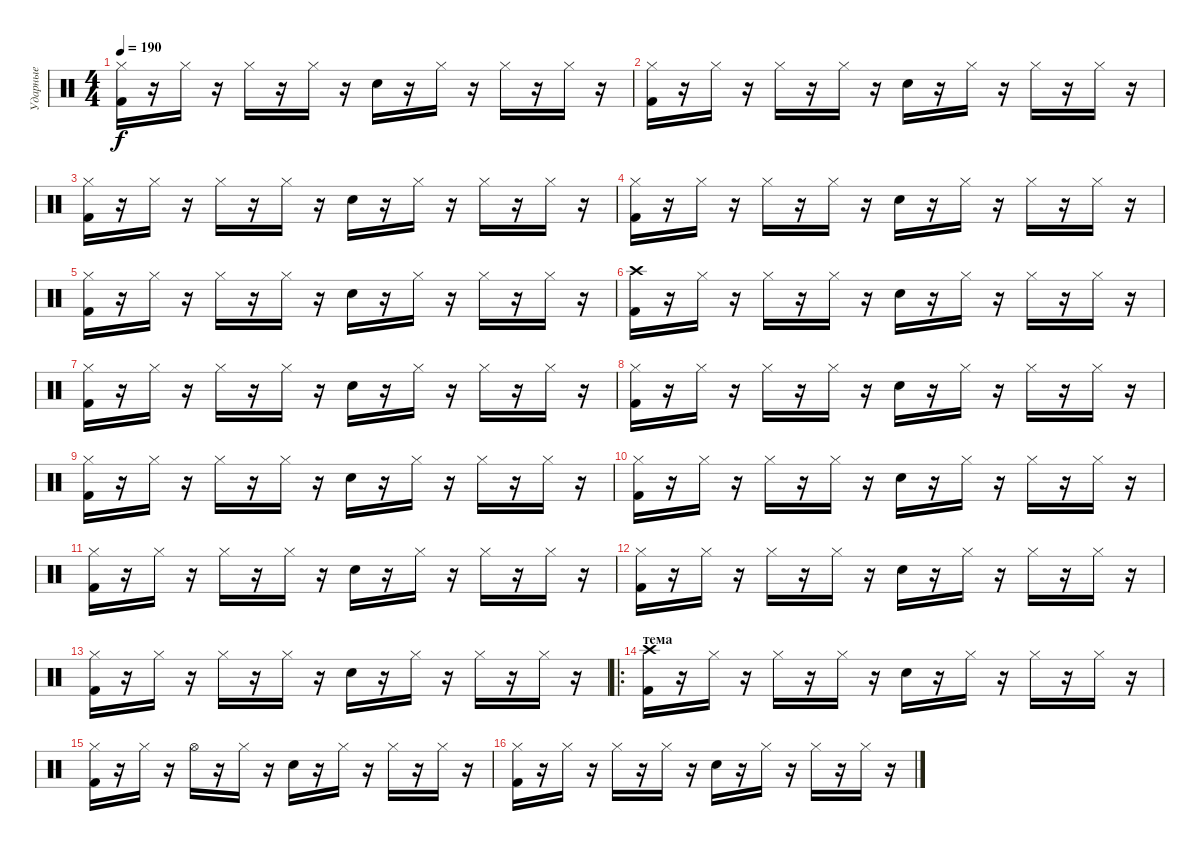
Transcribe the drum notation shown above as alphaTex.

\track ("Ударные" "Ударные") {instrument percussion}
\staff {score}
\articulation defaults
\ts (4 4)
\tempo 190
\clef neutral
\ks c
("Hi-Hat (closed)" "Kick (hit) 2").16{dy f} r.16 "Hi-Hat (closed)".16 r.16 "Hi-Hat (closed)".16 r.16 "Hi-Hat (closed)".16 r.16 "Snare (hit) 2".16 r.16 "Hi-Hat (closed)".16 r.16 "Hi-Hat (closed)".16 r.16 "Hi-Hat (closed)".16 r.16 |
("Hi-Hat (closed)" "Kick (hit) 2").16 r.16 "Hi-Hat (closed)".16 r.16 "Hi-Hat (closed)".16 r.16 "Hi-Hat (closed)".16 r.16 "Snare (hit) 2".16 r.16 "Hi-Hat (closed)".16 r.16 "Hi-Hat (closed)".16 r.16 "Hi-Hat (closed)".16 r.16 |
("Hi-Hat (closed)" "Kick (hit) 2").16 r.16 "Hi-Hat (closed)".16 r.16 "Hi-Hat (closed)".16 r.16 "Hi-Hat (closed)".16 r.16 "Snare (hit) 2".16 r.16 "Hi-Hat (closed)".16 r.16 "Hi-Hat (closed)".16 r.16 "Hi-Hat (closed)".16 r.16 |
("Hi-Hat (closed)" "Kick (hit) 2").16 r.16 "Hi-Hat (closed)".16 r.16 "Hi-Hat (closed)".16 r.16 "Hi-Hat (closed)".16 r.16 "Snare (hit) 2".16 r.16 "Hi-Hat (closed)".16 r.16 "Hi-Hat (closed)".16 r.16 "Hi-Hat (closed)".16 r.16 |
("Hi-Hat (closed)" "Kick (hit) 2").16 r.16 "Hi-Hat (closed)".16 r.16 "Hi-Hat (closed)".16 r.16 "Hi-Hat (closed)".16 r.16 "Snare (hit) 2".16 r.16 "Hi-Hat (closed)".16 r.16 "Hi-Hat (closed)".16 r.16 "Hi-Hat (closed)".16 r.16 |
("Crash high (hit)" "Kick (hit) 2").16 r.16 "Hi-Hat (closed)".16 r.16 "Hi-Hat (closed)".16 r.16 "Hi-Hat (closed)".16 r.16 "Snare (hit) 2".16 r.16 "Hi-Hat (closed)".16 r.16 "Hi-Hat (closed)".16 r.16 "Hi-Hat (closed)".16 r.16 |
("Hi-Hat (closed)" "Kick (hit) 2").16 r.16 "Hi-Hat (closed)".16 r.16 "Hi-Hat (closed)".16 r.16 "Hi-Hat (closed)".16 r.16 "Snare (hit) 2".16 r.16 "Hi-Hat (closed)".16 r.16 "Hi-Hat (closed)".16 r.16 "Hi-Hat (closed)".16 r.16 |
("Hi-Hat (closed)" "Kick (hit) 2").16 r.16 "Hi-Hat (closed)".16 r.16 "Hi-Hat (closed)".16 r.16 "Hi-Hat (closed)".16 r.16 "Snare (hit) 2".16 r.16 "Hi-Hat (closed)".16 r.16 "Hi-Hat (closed)".16 r.16 "Hi-Hat (closed)".16 r.16 |
("Hi-Hat (closed)" "Kick (hit) 2").16 r.16 "Hi-Hat (closed)".16 r.16 "Hi-Hat (closed)".16 r.16 "Hi-Hat (closed)".16 r.16 "Snare (hit) 2".16 r.16 "Hi-Hat (closed)".16 r.16 "Hi-Hat (closed)".16 r.16 "Hi-Hat (closed)".16 r.16 |
("Hi-Hat (closed)" "Kick (hit) 2").16 r.16 "Hi-Hat (closed)".16 r.16 "Hi-Hat (closed)".16 r.16 "Hi-Hat (closed)".16 r.16 "Snare (hit) 2".16 r.16 "Hi-Hat (closed)".16 r.16 "Hi-Hat (closed)".16 r.16 "Hi-Hat (closed)".16 r.16 |
("Hi-Hat (closed)" "Kick (hit) 2").16 r.16 "Hi-Hat (closed)".16 r.16 "Hi-Hat (closed)".16 r.16 "Hi-Hat (closed)".16 r.16 "Snare (hit) 2".16 r.16 "Hi-Hat (closed)".16 r.16 "Hi-Hat (closed)".16 r.16 "Hi-Hat (closed)".16 r.16 |
("Hi-Hat (closed)" "Kick (hit) 2").16 r.16 "Hi-Hat (closed)".16 r.16 "Hi-Hat (closed)".16 r.16 "Hi-Hat (closed)".16 r.16 "Snare (hit) 2".16 r.16 "Hi-Hat (closed)".16 r.16 "Hi-Hat (closed)".16 r.16 "Hi-Hat (closed)".16 r.16 |
("Hi-Hat (closed)" "Kick (hit) 2").16 r.16 "Hi-Hat (closed)".16 r.16 "Hi-Hat (closed)".16 r.16 "Hi-Hat (closed)".16 r.16 "Snare (hit) 2".16 r.16 "Hi-Hat (closed)".16 r.16 "Hi-Hat (closed)".16 r.16 "Hi-Hat (closed)".16 r.16 |
\ro
\section ("" "тема")
("Crash high (hit)" "Kick (hit) 2").16 r.16 "Hi-Hat (closed)".16 r.16 "Hi-Hat (closed)".16 r.16 "Hi-Hat (closed)".16 r.16 "Snare (hit) 2".16 r.16 "Hi-Hat (closed)".16 r.16 "Hi-Hat (closed)".16 r.16 "Hi-Hat (closed)".16 r.16 |
("Hi-Hat (closed)" "Kick (hit) 2").16 r.16 "Hi-Hat (closed)".16 r.16 "Hi-Hat (open)".16 r.16 "Hi-Hat (closed)".16 r.16 "Snare (hit) 2".16 r.16 "Hi-Hat (closed)".16 r.16 "Hi-Hat (closed)".16 r.16 "Hi-Hat (closed)".16 r.16 |
("Hi-Hat (closed)" "Kick (hit) 2").16 r.16 "Hi-Hat (closed)".16 r.16 "Hi-Hat (closed)".16 r.16 "Hi-Hat (closed)".16 r.16 "Snare (hit) 2".16 r.16 "Hi-Hat (closed)".16 r.16 "Hi-Hat (closed)".16 r.16 "Hi-Hat (closed)".16 r.16
